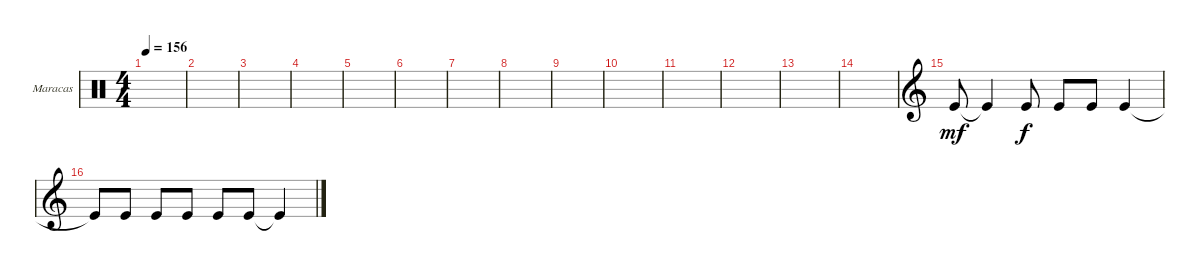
\defaultSystemsLayout 4
\bracketExtendMode groupsimilarinstruments
\firstSystemTrackNameOrientation horizontal
\otherSystemsTrackNameOrientation horizontal
\track ("Maracas" "Maracas") {instrument percussion}
\staff {score}
\articulation defaults
\ts (4 4)
\tempo 156
\clef neutral
\scale
0.333333
\ks c
|
\scale
0.333333 |
\scale
0.333333 |
\scale
0.333333 |
\scale
0.333333 |
\scale
0.333333 |
\scale
0.333333 |
\scale
0.333333 |
\scale
0.333333 |
\scale
0.333333 |
\scale
0.333333 |
\scale
0.333333 |
\scale
0.333333 |
\scale
0.333333 |
\clef g2
\scale
0.333333 "Kick (hit)".8{dy mf} "Kick (hit)"{t}.4 "Kick (hit)".8{dy f} "Kick (hit)".8 "Kick (hit)".8 "Kick (hit)".4 |
\scale
0.333333 "Kick (hit)"{t}.8 "Kick (hit)".8 "Kick (hit)".8 "Kick (hit)".8 "Kick (hit)".8 "Kick (hit)".8 "Kick (hit)"{t}.4
